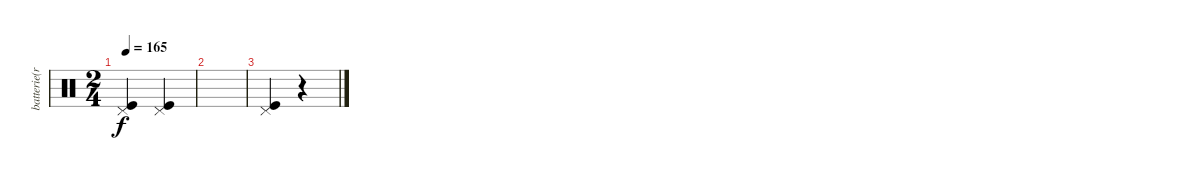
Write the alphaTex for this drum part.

\track ("batterie(rimbaud)" "batterie(r") {instrument percussion}
\staff {score}
\articulation defaults
\ts (2 4)
\tempo 165
\clef neutral
\ks c
("Pedal Hi-Hat (hit)" "Kick (hit)").4{dy f} ("Pedal Hi-Hat (hit)" "Kick (hit)").4 |
|
("Pedal Hi-Hat (hit)" "Kick (hit)").4 r.4
